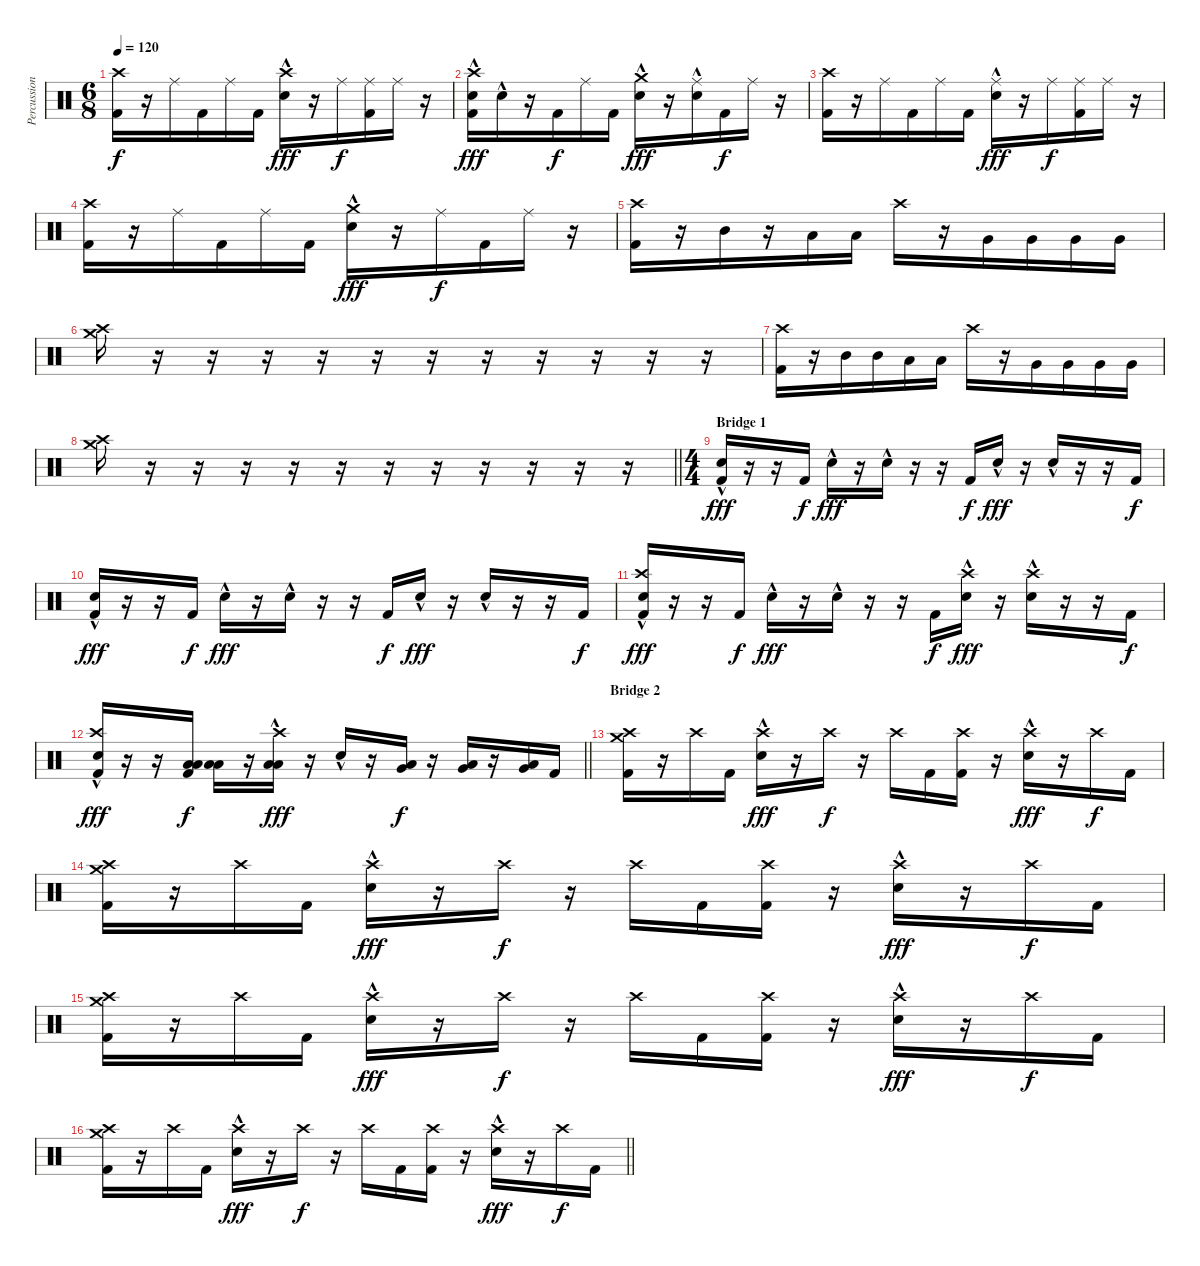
\track ("Percussion" "Percussion") {instrument percussion}
\staff {score}
\articulation defaults
\ts (6 8)
\tempo 120
\clef neutral
\ks c
("Kick (hit) 2" "Crash high (hit)").16{dy f} r.16 "Ride (middle)".16 "Kick (hit) 2".16 "Ride (middle)".16 "Kick (hit) 2".16 ("Snare (hit) 2"{hac} "Crash high (hit)").16{dy fff} r.16 "Ride (middle)".16{dy f} ("Kick (hit) 2" "Ride (middle)").16 "Ride (middle)".16 r.16 |
("Kick (hit) 2" "Snare (hit) 2"{hac} "Crash high (hit)").16{dy fff} "Snare (hit) 2"{hac}.16 r.16 "Kick (hit) 2".16{dy f} "Ride (middle)".16 "Kick (hit) 2".16 ("Snare (hit) 2"{hac} "Crash medium (hit)").16{dy fff} r.16 ("Snare (hit) 2"{hac} "Ride (middle)").16 "Kick (hit) 2".16{dy f} "Ride (middle)".16 r.16 |
("Kick (hit) 2" "Crash high (hit)").16 r.16 "Ride (middle)".16 "Kick (hit) 2".16 "Ride (middle)".16 "Kick (hit) 2".16 ("Snare (hit) 2"{hac} "Ride (middle)").16{dy fff} r.16 "Ride (middle)".16{dy f} ("Kick (hit) 2" "Ride (middle)").16 "Ride (middle)".16 r.16 |
("Kick (hit) 2" "Crash high (hit)").16 r.16 "Ride (middle)".16 "Kick (hit) 2".16 "Ride (middle)".16 "Kick (hit) 2".16 ("Snare (hit) 2"{hac} "Crash medium (hit)").16{dy fff} r.16 "Ride (middle)".16{dy f} "Kick (hit) 2".16 "Ride (middle)".16 r.16 |
("Kick (hit) 2" "Crash high (hit)").16 r.16 "Mid Tom (hit)".16 r.16 "Low Tom (hit)".16 "Low Tom (hit)".16 "Crash high (hit)".16 r.16 "Very Low Tom (hit)".16 "Very Low Tom (hit)".16 "Very Low Tom (hit)".16 "Very Low Tom (hit)".16 |
("Crash medium (hit)" "Crash high (hit)").16 r.16 r.16 r.16 r.16 r.16 r.16 r.16 r.16 r.16 r.16 r.16 |
("Kick (hit) 2" "Crash high (hit)").16 r.16 "Mid Tom (hit)".16 "Mid Tom (hit)".16 "Low Tom (hit)".16 "Low Tom (hit)".16 "Crash high (hit)".16 r.16 "Very Low Tom (hit)".16 "Very Low Tom (hit)".16 "Very Low Tom (hit)".16 "Very Low Tom (hit)".16 |
\barLineRight lightlight
("Crash medium (hit)" "Crash high (hit)").16 r.16 r.16 r.16 r.16 r.16 r.16 r.16 r.16 r.16 r.16 r.16 |
\ts (4 4)
\section ("" "Bridge 1")
("Kick (hit) 2" "Snare (hit) 2"{hac}).16{dy fff} r.16 r.16 "Kick (hit) 2".16{dy f} "Snare (hit) 2"{hac}.16{dy fff} r.16 "Snare (hit) 2"{hac}.16 r.16 r.16 "Kick (hit) 2".16{dy f} "Snare (hit) 2"{hac}.16{dy fff} r.16 "Snare (hit) 2"{hac}.16 r.16 r.16 "Kick (hit) 2".16{dy f} |
("Kick (hit) 2" "Snare (hit) 2"{hac}).16{dy fff} r.16 r.16 "Kick (hit) 2".16{dy f} "Snare (hit) 2"{hac}.16{dy fff} r.16 "Snare (hit) 2"{hac}.16 r.16 r.16 "Kick (hit) 2".16{dy f} "Snare (hit) 2"{hac}.16{dy fff} r.16 "Snare (hit) 2"{hac}.16 r.16 r.16 "Kick (hit) 2".16{dy f} |
("Kick (hit) 2" "Snare (hit) 2"{hac} "Crash high (hit)").16{dy fff} r.16 r.16 "Kick (hit) 2".16{dy f} "Snare (hit) 2"{hac}.16{dy fff} r.16 "Snare (hit) 2"{hac}.16 r.16 r.16 "Kick (hit) 2".16{dy f} ("Snare (hit) 2"{hac} "Crash high (hit)").16{dy fff} r.16 ("Snare (hit) 2"{hac} "Crash high (hit)").16 r.16 r.16 "Kick (hit) 2".16{dy f} |
\barLineRight lightlight
("Kick (hit) 2" "Snare (hit) 2"{hac} "Crash high (hit)").16{dy fff} r.16 r.16 ("Kick (hit) 2" "Low Floor Tom (hit)" "Low Tom (hit)").16{dy f} ("Low Floor Tom (hit)" "Low Tom (hit)").16 r.16 ("Low Floor Tom (hit)"{hac} "Low Tom (hit)" "Crash high (hit)").16{dy fff} r.16 "Snare (hit) 2"{hac}.16 r.16 ("Low Floor Tom (hit)" "Very Low Tom (hit)").16{dy f} r.16 ("Low Floor Tom (hit)" "Very Low Tom (hit)").16 r.16 ("Low Floor Tom (hit)" "Very Low Tom (hit)").16 "Kick (hit) 2".16 |
\section ("" "Bridge 2")
("Kick (hit) 2" "Crash medium (hit)" "Crash high (hit)").16 r.16 "Crash high (hit)".16 "Kick (hit) 2".16 ("Snare (hit) 2"{hac} "Crash high (hit)").16{dy fff} r.16 "Crash high (hit)".16{dy f} r.16 "Crash high (hit)".16 "Kick (hit) 2".16 ("Kick (hit) 2" "Crash high (hit)").16 r.16 ("Snare (hit) 2"{hac} "Crash high (hit)").16{dy fff} r.16 "Crash high (hit)".16{dy f} "Kick (hit) 2".16 |
("Kick (hit) 2" "Crash medium (hit)" "Crash high (hit)").16 r.16 "Crash high (hit)".16 "Kick (hit) 2".16 ("Snare (hit) 2"{hac} "Crash high (hit)").16{dy fff} r.16 "Crash high (hit)".16{dy f} r.16 "Crash high (hit)".16 "Kick (hit) 2".16 ("Kick (hit) 2" "Crash high (hit)").16 r.16 ("Snare (hit) 2"{hac} "Crash high (hit)").16{dy fff} r.16 "Crash high (hit)".16{dy f} "Kick (hit) 2".16 |
("Kick (hit) 2" "Crash medium (hit)" "Crash high (hit)").16 r.16 "Crash high (hit)".16 "Kick (hit) 2".16 ("Snare (hit) 2"{hac} "Crash high (hit)").16{dy fff} r.16 "Crash high (hit)".16{dy f} r.16 "Crash high (hit)".16 "Kick (hit) 2".16 ("Kick (hit) 2" "Crash high (hit)").16 r.16 ("Snare (hit) 2"{hac} "Crash high (hit)").16{dy fff} r.16 "Crash high (hit)".16{dy f} "Kick (hit) 2".16 |
\barLineRight lightlight
("Kick (hit) 2" "Crash medium (hit)" "Crash high (hit)").16 r.16 "Crash high (hit)".16 "Kick (hit) 2".16 ("Snare (hit) 2"{hac} "Crash high (hit)").16{dy fff} r.16 "Crash high (hit)".16{dy f} r.16 "Crash high (hit)".16 "Kick (hit) 2".16 ("Kick (hit) 2" "Crash high (hit)").16 r.16 ("Snare (hit) 2"{hac} "Crash high (hit)").16{dy fff} r.16 "Crash high (hit)".16{dy f} "Kick (hit) 2".16
